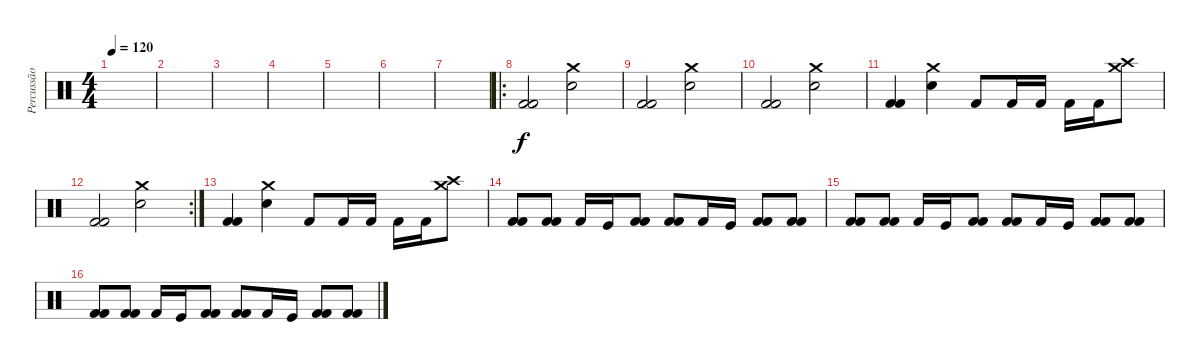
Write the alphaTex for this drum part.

\track ("Percussão" "Percussão") {instrument percussion}
\staff {score}
\articulation defaults
\ts (4 4)
\tempo 120
\clef neutral
\ks c
|
|
|
|
|
|
|
\ro
("Kick (hit) 2" "Kick (hit) 2").2 ("Snare (hit) 2" "Crash medium (hit)").2 |
("Kick (hit) 2" "Kick (hit) 2").2 ("Snare (hit) 2" "Crash medium (hit)").2 |
("Kick (hit) 2" "Kick (hit) 2").2 ("Snare (hit) 2" "Crash medium (hit)").2 |
("Kick (hit) 2" "Kick (hit) 2").4 ("Snare (hit) 2" "Crash medium (hit)").4 "Kick (hit) 2".8 "Kick (hit) 2".16 "Kick (hit) 2".16 "Kick (hit) 2".16 "Kick (hit) 2".16 ("Crash high (hit)" "Crash medium (hit)").8 |
\rc 2
("Kick (hit) 2" "Kick (hit) 2").2 ("Snare (hit) 2" "Crash medium (hit)").2 |
("Kick (hit) 2" "Kick (hit) 2").4 ("Snare (hit) 2" "Crash medium (hit)").4 "Kick (hit) 2".8 "Kick (hit) 2".16 "Kick (hit) 2".16 "Kick (hit) 2".16 "Kick (hit) 2".16 ("Crash high (hit)" "Crash medium (hit)").8 |
("Kick (hit) 2" "Kick (hit) 2").8 ("Kick (hit) 2" "Kick (hit) 2").8 "Kick (hit) 2".16 "Kick (hit)".16 ("Kick (hit) 2" "Kick (hit) 2").8 ("Kick (hit) 2" "Kick (hit) 2").8 "Kick (hit) 2".16 "Kick (hit)".16 ("Kick (hit) 2" "Kick (hit) 2").8 ("Kick (hit) 2" "Kick (hit) 2").8 |
("Kick (hit) 2" "Kick (hit) 2").8 ("Kick (hit) 2" "Kick (hit) 2").8 "Kick (hit) 2".16 "Kick (hit)".16 ("Kick (hit) 2" "Kick (hit) 2").8 ("Kick (hit) 2" "Kick (hit) 2").8 "Kick (hit) 2".16 "Kick (hit)".16 ("Kick (hit) 2" "Kick (hit) 2").8 ("Kick (hit) 2" "Kick (hit) 2").8 |
("Kick (hit) 2" "Kick (hit) 2").8 ("Kick (hit) 2" "Kick (hit) 2").8 "Kick (hit) 2".16 "Kick (hit)".16 ("Kick (hit) 2" "Kick (hit) 2").8 ("Kick (hit) 2" "Kick (hit) 2").8 "Kick (hit) 2".16 "Kick (hit)".16 ("Kick (hit) 2" "Kick (hit) 2").8 ("Kick (hit) 2" "Kick (hit) 2").8
